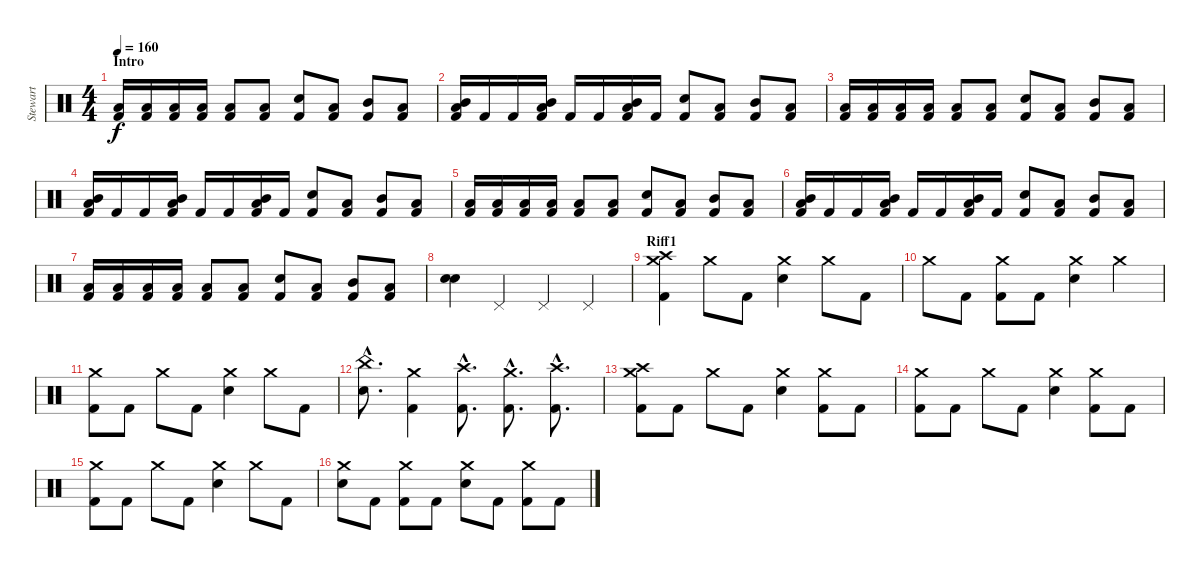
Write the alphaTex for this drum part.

\track ("Stewart" "Stewart") {instrument percussion}
\staff {score}
\articulation defaults
\ts (4 4)
\section ("" "Intro")
\tempo 160
\clef neutral
\ks c
("Low Tom (hit)" "Kick (hit) 2").16{dy f} ("Low Tom (hit)" "Kick (hit) 2").16 ("Low Tom (hit)" "Kick (hit) 2").16 ("Low Tom (hit)" "Kick (hit) 2").16 ("Low Tom (hit)" "Kick (hit) 2").8 ("Low Tom (hit)" "Kick (hit) 2").8 ("Electric Snare (hit)" "Kick (hit) 2").8 ("Low Tom (hit)" "Kick (hit) 2").8 ("Mid Tom (hit)" "Kick (hit) 2").8 ("Low Tom (hit)" "Kick (hit) 2").8 |
("Mid Tom (hit)" "Low Tom (hit)" "Kick (hit) 2").16 "Kick (hit) 2".16 "Kick (hit) 2".16 ("Mid Tom (hit)" "Low Tom (hit)" "Kick (hit) 2").16 "Kick (hit) 2".16 "Kick (hit) 2".16 ("Mid Tom (hit)" "Low Tom (hit)" "Kick (hit) 2").16 "Kick (hit) 2".16 ("Electric Snare (hit)" "Kick (hit) 2").8 ("Low Tom (hit)" "Kick (hit) 2").8 ("Mid Tom (hit)" "Kick (hit) 2").8 ("Low Tom (hit)" "Kick (hit) 2").8 |
("Low Tom (hit)" "Kick (hit) 2").16 ("Low Tom (hit)" "Kick (hit) 2").16 ("Low Tom (hit)" "Kick (hit) 2").16 ("Low Tom (hit)" "Kick (hit) 2").16 ("Low Tom (hit)" "Kick (hit) 2").8 ("Low Tom (hit)" "Kick (hit) 2").8 ("Electric Snare (hit)" "Kick (hit) 2").8 ("Low Tom (hit)" "Kick (hit) 2").8 ("Mid Tom (hit)" "Kick (hit) 2").8 ("Low Tom (hit)" "Kick (hit) 2").8 |
("Mid Tom (hit)" "Low Tom (hit)" "Kick (hit) 2").16 "Kick (hit) 2".16 "Kick (hit) 2".16 ("Mid Tom (hit)" "Low Tom (hit)" "Kick (hit) 2").16 "Kick (hit) 2".16 "Kick (hit) 2".16 ("Mid Tom (hit)" "Low Tom (hit)" "Kick (hit) 2").16 "Kick (hit) 2".16 ("Electric Snare (hit)" "Kick (hit) 2").8 ("Low Tom (hit)" "Kick (hit) 2").8 ("Mid Tom (hit)" "Kick (hit) 2").8 ("Low Tom (hit)" "Kick (hit) 2").8 |
("Low Tom (hit)" "Kick (hit) 2").16 ("Low Tom (hit)" "Kick (hit) 2").16 ("Low Tom (hit)" "Kick (hit) 2").16 ("Low Tom (hit)" "Kick (hit) 2").16 ("Low Tom (hit)" "Kick (hit) 2").8 ("Low Tom (hit)" "Kick (hit) 2").8 ("Electric Snare (hit)" "Kick (hit) 2").8 ("Low Tom (hit)" "Kick (hit) 2").8 ("Mid Tom (hit)" "Kick (hit) 2").8 ("Low Tom (hit)" "Kick (hit) 2").8 |
("Mid Tom (hit)" "Low Tom (hit)" "Kick (hit) 2").16 "Kick (hit) 2".16 "Kick (hit) 2".16 ("Mid Tom (hit)" "Low Tom (hit)" "Kick (hit) 2").16 "Kick (hit) 2".16 "Kick (hit) 2".16 ("Mid Tom (hit)" "Low Tom (hit)" "Kick (hit) 2").16 "Kick (hit) 2".16 ("Electric Snare (hit)" "Kick (hit) 2").8 ("Low Tom (hit)" "Kick (hit) 2").8 ("Mid Tom (hit)" "Kick (hit) 2").8 ("Low Tom (hit)" "Kick (hit) 2").8 |
("Low Tom (hit)" "Kick (hit) 2").16 ("Low Tom (hit)" "Kick (hit) 2").16 ("Low Tom (hit)" "Kick (hit) 2").16 ("Low Tom (hit)" "Kick (hit) 2").16 ("Low Tom (hit)" "Kick (hit) 2").8 ("Low Tom (hit)" "Kick (hit) 2").8 ("Electric Snare (hit)" "Kick (hit) 2").8 ("Low Tom (hit)" "Kick (hit) 2").8 ("Mid Tom (hit)" "Kick (hit) 2").8 ("Low Tom (hit)" "Kick (hit) 2").8 |
("Electric Snare (hit)" "Electric Snare (hit)").4 "Pedal Hi-Hat (hit)".4 "Pedal Hi-Hat (hit)".4 "Pedal Hi-Hat (hit)".4 |
\section ("" "Riff1")
("Crash medium (hit)" "Crash high (hit)" "Kick (hit) 2").4 "Crash medium (hit)".8 "Kick (hit) 2".8 ("Crash medium (hit)" "Electric Snare (hit)").4 "Crash medium (hit)".8 "Kick (hit) 2".8 |
"Crash medium (hit)".8 "Kick (hit) 2".8 ("Crash medium (hit)" "Kick (hit) 2").8 "Kick (hit) 2".8 ("Crash medium (hit)" "Electric Snare (hit)").4 "Crash medium (hit)".4 |
("Crash medium (hit)" "Kick (hit) 2").8 "Kick (hit) 2".8 "Crash medium (hit)".8 "Kick (hit) 2".8 ("Crash medium (hit)" "Electric Snare (hit)").4 "Crash medium (hit)".8 "Kick (hit) 2".8 |
("China (hit)"{hac} "Electric Snare (hit)"{hac}).8{d} ("Crash medium (hit)" "Kick (hit) 2").4 ("Crash high (hit)"{hac} "Kick (hit) 2"{hac}).8{d} ("Crash medium (hit)"{hac} "Kick (hit) 2"{hac}).8{d} ("Crash high (hit)"{hac} "Kick (hit) 2"{hac}).8{d} |
("Crash medium (hit)" "Crash high (hit)" "Kick (hit) 2").8 "Kick (hit) 2".8 "Crash medium (hit)".8 "Kick (hit) 2".8 ("Crash medium (hit)" "Electric Snare (hit)").4 ("Crash medium (hit)" "Kick (hit) 2").8 "Kick (hit) 2".8 |
("Crash medium (hit)" "Kick (hit) 2").8 "Kick (hit) 2".8 "Crash medium (hit)".8 "Kick (hit) 2".8 ("Crash medium (hit)" "Electric Snare (hit)").4 ("Crash medium (hit)" "Kick (hit) 2").8 "Kick (hit) 2".8 |
("Crash medium (hit)" "Kick (hit) 2").8 "Kick (hit) 2".8 "Crash medium (hit)".8 "Kick (hit) 2".8 ("Crash medium (hit)" "Electric Snare (hit)").4 "Crash medium (hit)".8 "Kick (hit) 2".8 |
("Crash medium (hit)" "Electric Snare (hit)").8 "Kick (hit) 2".8 ("Crash medium (hit)" "Kick (hit) 2").8 "Kick (hit) 2".8 ("Crash medium (hit)" "Electric Snare (hit)").8 "Kick (hit) 2".8 ("Crash medium (hit)" "Kick (hit) 2").8 "Kick (hit) 2".8
